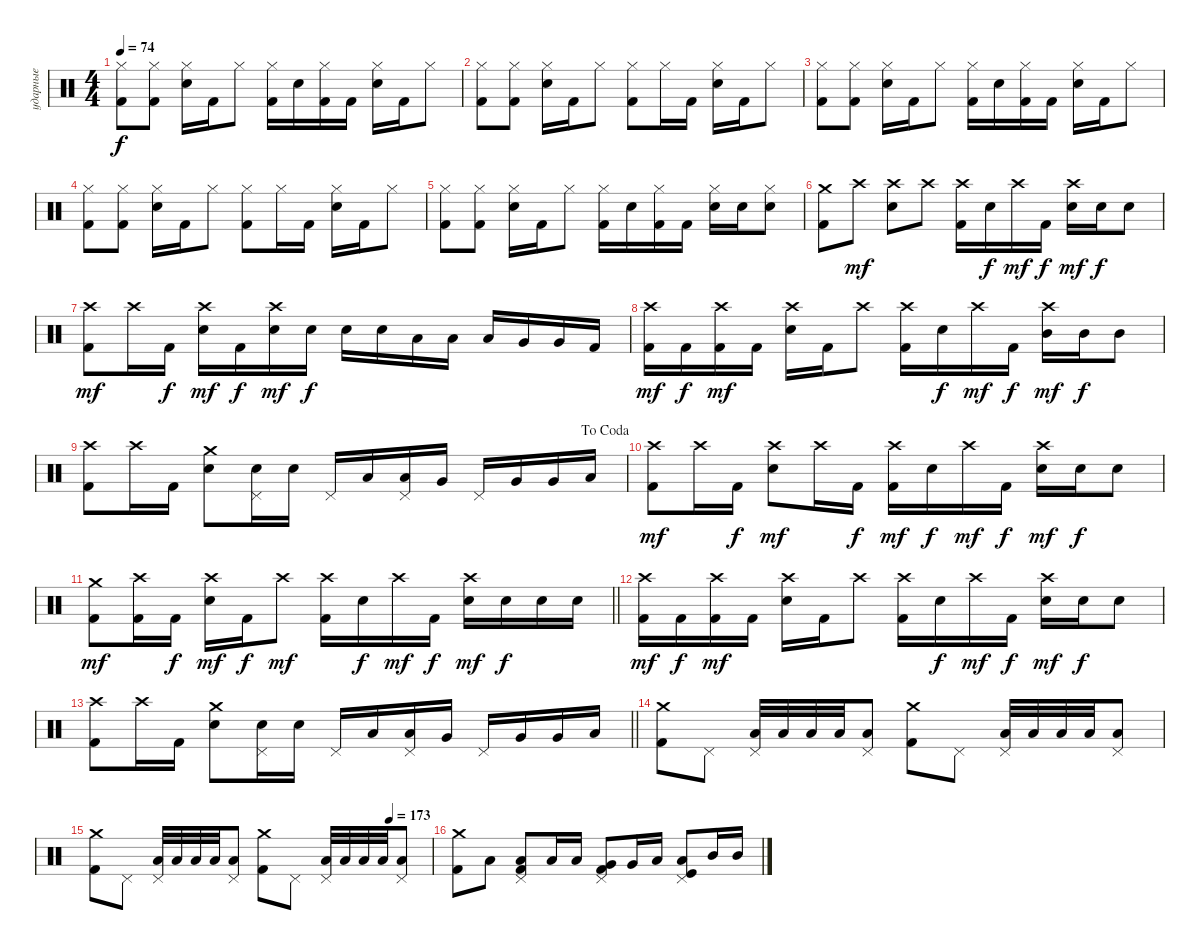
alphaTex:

\track ("ударные" "ударные") {instrument percussion}
\staff {score}
\articulation defaults
\ts (4 4)
\tempo 74
\clef neutral
\ks aminor
("Kick (hit) 2" "Hi-Hat (closed)").8{dy f} ("Hi-Hat (closed)" "Kick (hit) 2").8 ("Snare (hit) 2" "Hi-Hat (closed)").16 "Kick (hit) 2".16 "Hi-Hat (closed)".8 ("Kick (hit) 2" "Hi-Hat (closed)").16 "Snare (hit) 2".16 ("Kick (hit) 2" "Hi-Hat (closed)").16 "Kick (hit) 2".16 ("Snare (hit) 2" "Hi-Hat (closed)").16 "Kick (hit) 2".16 "Hi-Hat (closed)".8 |
("Kick (hit) 2" "Hi-Hat (closed)").8 ("Kick (hit) 2" "Hi-Hat (closed)").8 ("Snare (hit) 2" "Hi-Hat (closed)").16 "Kick (hit) 2".16 "Hi-Hat (closed)".8 ("Kick (hit) 2" "Hi-Hat (closed)").8 "Hi-Hat (closed)".16 "Kick (hit) 2".16 ("Snare (hit) 2" "Hi-Hat (closed)").16 "Kick (hit) 2".16 "Hi-Hat (closed)".8 |
("Kick (hit) 2" "Hi-Hat (closed)").8 ("Hi-Hat (closed)" "Kick (hit) 2").8 ("Snare (hit) 2" "Hi-Hat (closed)").16 "Kick (hit) 2".16 "Hi-Hat (closed)".8 ("Kick (hit) 2" "Hi-Hat (closed)").16 "Snare (hit) 2".16 ("Kick (hit) 2" "Hi-Hat (closed)").16 "Kick (hit) 2".16 ("Snare (hit) 2" "Hi-Hat (closed)").16 "Kick (hit) 2".16 "Hi-Hat (closed)".8 |
("Kick (hit) 2" "Hi-Hat (closed)").8 ("Kick (hit) 2" "Hi-Hat (closed)").8 ("Snare (hit) 2" "Hi-Hat (closed)").16 "Kick (hit) 2".16 "Hi-Hat (closed)".8 ("Kick (hit) 2" "Hi-Hat (closed)").8 "Hi-Hat (closed)".16 "Kick (hit) 2".16 ("Snare (hit) 2" "Hi-Hat (closed)").16 "Kick (hit) 2".16 "Hi-Hat (closed)".8 |
("Kick (hit) 2" "Hi-Hat (closed)").8 ("Hi-Hat (closed)" "Kick (hit) 2").8 ("Snare (hit) 2" "Hi-Hat (closed)").16 "Kick (hit) 2".16 "Hi-Hat (closed)".8 ("Kick (hit) 2" "Hi-Hat (closed)").16 "Snare (hit) 2".16 ("Kick (hit) 2" "Hi-Hat (closed)").16 "Kick (hit) 2".16 ("Snare (hit) 2" "Hi-Hat (closed)").16 "Snare (hit) 2".16 ("Hi-Hat (closed)" "Snare (hit) 2").8 |
("Kick (hit) 2" "Crash medium (hit)").8 "Crash high (hit)".8{dy mf} ("Snare (hit) 2" "Crash high (hit)").8 "Crash high (hit)".8 ("Kick (hit) 2" "Crash high (hit)").16 "Snare (hit) 2".16{dy f} "Crash high (hit)".16{dy mf} "Kick (hit) 2".16{dy f} ("Snare (hit) 2" "Crash high (hit)").16{dy mf} "Snare (hit) 2".16{dy f} "Snare (hit) 2".8 |
("Kick (hit) 2" "Crash high (hit)").8{dy mf} "Crash high (hit)".16 "Kick (hit) 2".16{dy f} ("Snare (hit) 2" "Crash high (hit)").16{dy mf} "Kick (hit) 2".16{dy f} ("Snare (hit) 2" "Crash high (hit)").16{dy mf} "Snare (hit) 2".16{dy f} "Snare (hit) 2".16 "Snare (hit) 2".16 "Low Tom (hit)".16 "Low Tom (hit)".16 "Low Tom (hit)".16 "Very Low Tom (hit)".16 "Very Low Tom (hit)".16 "Kick (hit) 2".16 |
("Kick (hit) 2" "Crash high (hit)").16{dy mf} "Kick (hit) 2".16{dy f} ("Crash high (hit)" "Kick (hit) 2").16{dy mf} "Kick (hit) 2".16 ("Crash high (hit)" "Snare (hit) 2").16 "Kick (hit) 2".16 "Crash high (hit)".8 ("Crash high (hit)" "Kick (hit) 2").16 "Snare (hit) 2".16{dy f} "Crash high (hit)".16{dy mf} "Kick (hit) 2".16{dy f} ("Crash high (hit)" "Mid Tom (hit)").16{dy mf} "Mid Tom (hit)".16{dy f} "Mid Tom (hit)".8 |
\jump dacoda
("Kick (hit) 2" "Crash high (hit)").8 "Crash high (hit)".16 "Kick (hit) 2".16 ("Snare (hit) 2" "Crash medium (hit)").8 ("Pedal Hi-Hat (hit)" "Snare (hit) 2").16 "Snare (hit) 2".16 "Pedal Hi-Hat (hit)".16 "Low Tom (hit)".16 ("Pedal Hi-Hat (hit)" "Low Tom (hit)").16 "Very Low Tom (hit)".16 "Pedal Hi-Hat (hit)".16 "Very Low Tom (hit)".16 "Very Low Tom (hit)".16 "Low Floor Tom (hit)".16 |
("Kick (hit) 2" "Crash high (hit)").8{dy mf} "Crash high (hit)".16 "Kick (hit) 2".16{dy f} ("Snare (hit) 2" "Crash high (hit)").8{dy mf} "Crash high (hit)".16 "Kick (hit) 2".16{dy f} ("Kick (hit) 2" "Crash high (hit)").16{dy mf} "Snare (hit) 2".16{dy f} "Crash high (hit)".16{dy mf} "Kick (hit) 2".16{dy f} ("Snare (hit) 2" "Crash high (hit)").16{dy mf} "Snare (hit) 2".16{dy f} "Snare (hit) 2".8 |
\barLineRight lightlight
("Kick (hit) 2" "Crash medium (hit)").8{dy mf} ("Crash high (hit)" "Kick (hit) 2").16 "Kick (hit) 2".16{dy f} ("Snare (hit) 2" "Crash high (hit)").16{dy mf} "Kick (hit) 2".16{dy f} "Crash high (hit)".8{dy mf} ("Kick (hit) 2" "Crash high (hit)").16 "Snare (hit) 2".16{dy f} "Crash high (hit)".16{dy mf} "Kick (hit) 2".16{dy f} ("Snare (hit) 2" "Crash high (hit)").16{dy mf} "Snare (hit) 2".16{dy f} "Snare (hit) 2".16 "Snare (hit) 2".16 |
\section ("" "")
("Kick (hit) 2" "Crash high (hit)").16{dy mf} "Kick (hit) 2".16{dy f} ("Crash high (hit)" "Kick (hit) 2").16{dy mf} "Kick (hit) 2".16 ("Crash high (hit)" "Snare (hit) 2").16 "Kick (hit) 2".16 "Crash high (hit)".8 ("Crash high (hit)" "Kick (hit) 2").16 "Snare (hit) 2".16{dy f} "Crash high (hit)".16{dy mf} "Kick (hit) 2".16{dy f} ("Snare (hit) 2" "Crash high (hit)").16{dy mf} "Snare (hit) 2".16{dy f} "Snare (hit) 2".8 |
\barLineRight lightlight
("Kick (hit) 2" "Crash high (hit)").8 "Crash high (hit)".16 "Kick (hit) 2".16 ("Snare (hit) 2" "Crash medium (hit)").8 ("Pedal Hi-Hat (hit)" "Snare (hit) 2").16 "Snare (hit) 2".16 "Pedal Hi-Hat (hit)".16 "Low Tom (hit)".16 ("Pedal Hi-Hat (hit)" "Low Tom (hit)").16 "Very Low Tom (hit)".16 "Pedal Hi-Hat (hit)".16 "Very Low Tom (hit)".16 "Very Low Tom (hit)".16 "Low Floor Tom (hit)".16 |
("Kick (hit) 2" "Crash medium (hit)").8 "Pedal Hi-Hat (hit)".8 ("Pedal Hi-Hat (hit)" "Low Tom (hit)").32 "Low Tom (hit)".32 "Low Tom (hit)".32 "Low Tom (hit)".32 ("Low Tom (hit)" "Pedal Hi-Hat (hit)").8 ("Kick (hit) 2" "Crash medium (hit)").8 "Pedal Hi-Hat (hit)".8 ("Pedal Hi-Hat (hit)" "Low Tom (hit)").32 "Low Tom (hit)".32 "Low Tom (hit)".32 "Low Tom (hit)".32 ("Low Tom (hit)" "Pedal Hi-Hat (hit)").8 |
\tempo (173 0.875)
("Kick (hit) 2" "Crash medium (hit)").8 "Pedal Hi-Hat (hit)".8 ("Pedal Hi-Hat (hit)" "Low Tom (hit)").32 "Low Tom (hit)".32 "Low Tom (hit)".32 "Low Tom (hit)".32 ("Low Tom (hit)" "Pedal Hi-Hat (hit)").8 ("Kick (hit) 2" "Crash medium (hit)").8 "Pedal Hi-Hat (hit)".8 ("Pedal Hi-Hat (hit)" "Low Tom (hit)").32 "Low Tom (hit)".32 "Low Tom (hit)".32 "Low Tom (hit)".32 ("Low Tom (hit)" "Pedal Hi-Hat (hit)").8 |
("Kick (hit) 2" "Crash medium (hit)").8 "Low Tom (hit)".8 ("Low Tom (hit)" "Kick (hit) 2" "Pedal Hi-Hat (hit)").8 "Low Tom (hit)".16 "Low Tom (hit)".16 ("Very Low Tom (hit)" "Kick (hit) 2" "Pedal Hi-Hat (hit)").8 "Very Low Tom (hit)".16 "Low Tom (hit)".16 ("Low Tom (hit)" "Kick (hit)" "Pedal Hi-Hat (hit)").8 "Mid Tom (hit)".16 "Mid Tom (hit)".16
